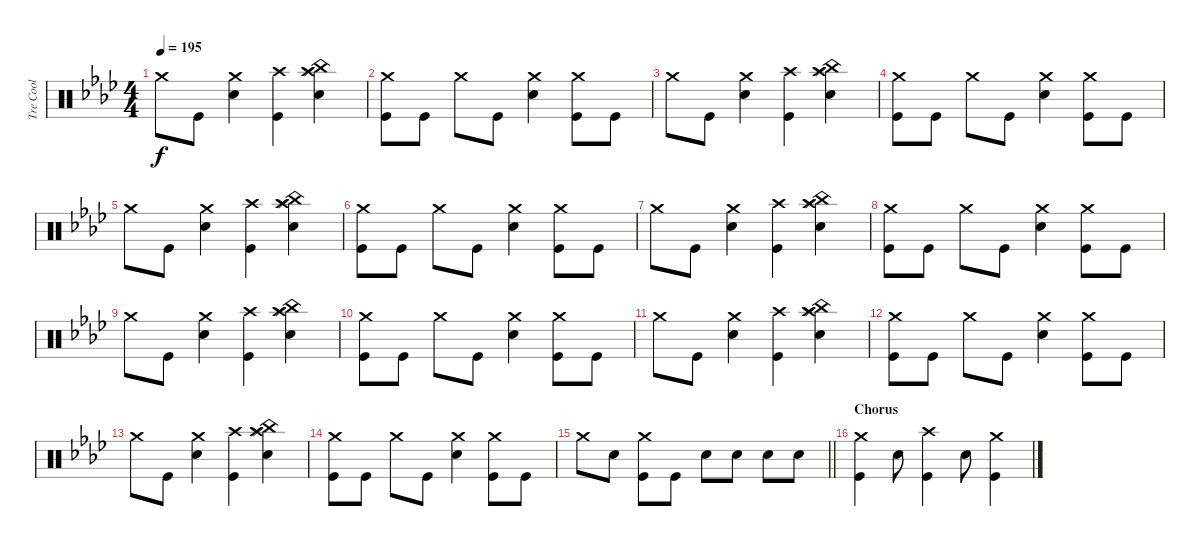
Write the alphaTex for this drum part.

\track ("Tre Cool" "Tre Cool") {instrument percussion}
\staff {score}
\articulation defaults
\ts (4 4)
\tempo 195
\clef neutral
\ks ab "Crash medium (hit)".8{dy f} "Kick (hit)".8
("Crash medium (hit)" "Electric Snare (hit)").4 ("Crash high (hit)" "Kick (hit)").4 ("China (hit)" "Splash (hit)" "Electric Snare (hit)" "Crash high (hit)").4 |
("Crash medium (hit)" "Kick (hit)").8 "Kick (hit)".8 "Crash medium (hit)".8 "Kick (hit)".8 ("Crash medium (hit)" "Electric Snare (hit)").4 ("Crash medium (hit)" "Kick (hit)").8 "Kick (hit)".8 |
"Crash medium (hit)".8 "Kick (hit)".8 ("Crash medium (hit)" "Electric Snare (hit)").4 ("Crash high (hit)" "Kick (hit)").4 ("China (hit)" "Splash (hit)" "Electric Snare (hit)" "Crash high (hit)").4 |
("Crash medium (hit)" "Kick (hit)").8 "Kick (hit)".8 "Crash medium (hit)".8 "Kick (hit)".8 ("Crash medium (hit)" "Electric Snare (hit)").4 ("Crash medium (hit)" "Kick (hit)").8 "Kick (hit)".8 |
"Crash medium (hit)".8 "Kick (hit)".8 ("Crash medium (hit)" "Electric Snare (hit)").4 ("Crash high (hit)" "Kick (hit)").4 ("China (hit)" "Splash (hit)" "Electric Snare (hit)" "Crash high (hit)").4 |
("Crash medium (hit)" "Kick (hit)").8 "Kick (hit)".8 "Crash medium (hit)".8 "Kick (hit)".8 ("Crash medium (hit)" "Electric Snare (hit)").4 ("Crash medium (hit)" "Kick (hit)").8 "Kick (hit)".8 |
"Crash medium (hit)".8 "Kick (hit)".8 ("Crash medium (hit)" "Electric Snare (hit)").4 ("Crash high (hit)" "Kick (hit)").4 ("China (hit)" "Splash (hit)" "Electric Snare (hit)" "Crash high (hit)").4 |
("Crash medium (hit)" "Kick (hit)").8 "Kick (hit)".8 "Crash medium (hit)".8 "Kick (hit)".8 ("Crash medium (hit)" "Electric Snare (hit)").4 ("Crash medium (hit)" "Kick (hit)").8 "Kick (hit)".8 |
"Crash medium (hit)".8 "Kick (hit)".8 ("Crash medium (hit)" "Electric Snare (hit)").4 ("Crash high (hit)" "Kick (hit)").4 ("China (hit)" "Splash (hit)" "Electric Snare (hit)" "Crash high (hit)").4 |
("Crash medium (hit)" "Kick (hit)").8 "Kick (hit)".8 "Crash medium (hit)".8 "Kick (hit)".8 ("Crash medium (hit)" "Electric Snare (hit)").4 ("Crash medium (hit)" "Kick (hit)").8 "Kick (hit)".8 |
"Crash medium (hit)".8 "Kick (hit)".8 ("Crash medium (hit)" "Electric Snare (hit)").4 ("Crash high (hit)" "Kick (hit)").4 ("China (hit)" "Splash (hit)" "Electric Snare (hit)" "Crash high (hit)").4 |
("Crash medium (hit)" "Kick (hit)").8 "Kick (hit)".8 "Crash medium (hit)".8 "Kick (hit)".8 ("Crash medium (hit)" "Electric Snare (hit)").4 ("Crash medium (hit)" "Kick (hit)").8 "Kick (hit)".8 |
"Crash medium (hit)".8 "Kick (hit)".8 ("Crash medium (hit)" "Electric Snare (hit)").4 ("Crash high (hit)" "Kick (hit)").4 ("China (hit)" "Splash (hit)" "Electric Snare (hit)" "Crash high (hit)").4 |
("Crash medium (hit)" "Kick (hit)").8 "Kick (hit)".8 "Crash medium (hit)".8 "Kick (hit)".8 ("Crash medium (hit)" "Electric Snare (hit)").4 ("Crash medium (hit)" "Kick (hit)").8 "Kick (hit)".8 |
\barLineRight lightlight "Crash medium (hit)".8 "Electric Snare (hit)".8
("Crash medium (hit)" "Kick (hit)").8 "Kick (hit)".8 "Electric Snare (hit)".8 "Electric Snare (hit)".8 "Electric Snare (hit)".8 "Electric Snare (hit)".8 |
\section ("" "Chorus")
("Crash medium (hit)" "Kick (hit)").4 "Electric Snare (hit)".8 ("Crash high (hit)" "Kick (hit)").4 "Electric Snare (hit)".8 ("Crash medium (hit)" "Kick (hit)").4
